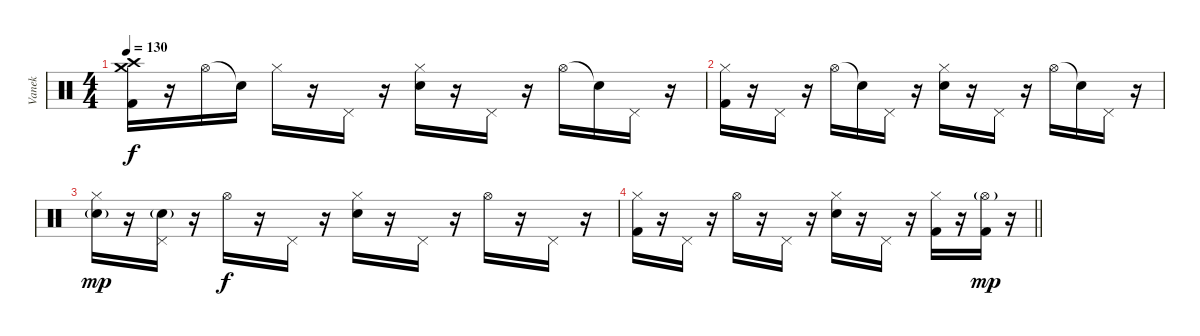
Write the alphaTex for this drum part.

\track ("Vanek" "Vanek") {instrument percussion}
\staff {score}
\articulation defaults
\ts (4 4)
\tempo 130
\clef neutral
\ks c
("Crash medium (hit)" "Crash high (hit)" "Kick (hit) 2").16{dy f} r.16 "Hi-Hat (open)".16 "Snare (hit)"{t}.16 "Hi-Hat (closed)".16 r.16 "Pedal Hi-Hat (hit)".16 r.16 ("Hi-Hat (closed)" "Electric Snare (hit)").16 r.16 "Pedal Hi-Hat (hit)".16 r.16 "Hi-Hat (open)".16 "Snare (hit)"{t}.16 "Pedal Hi-Hat (hit)".16 r.16 |
("Hi-Hat (closed)" "Kick (hit) 2").16 r.16 "Pedal Hi-Hat (hit)".16 r.16 "Hi-Hat (open)".16 "Snare (hit)"{t}.16 "Pedal Hi-Hat (hit)".16 r.16 ("Hi-Hat (closed)" "Electric Snare (hit)").16 r.16 "Pedal Hi-Hat (hit)".16 r.16 "Hi-Hat (open)".16 "Snare (hit)"{t}.16 "Pedal Hi-Hat (hit)".16 r.16 |
("Hi-Hat (closed)" "Electric Snare (hit)"{g}).16{dy mp} r.16 ("Pedal Hi-Hat (hit)" "Electric Snare (hit)"{g}).16 r.16 "Hi-Hat (open)".16{dy f} r.16 "Pedal Hi-Hat (hit)".16 r.16 ("Hi-Hat (closed)" "Electric Snare (hit)").16 r.16 "Pedal Hi-Hat (hit)".16 r.16 "Hi-Hat (open)".16 r.16 "Pedal Hi-Hat (hit)".16 r.16 |
\barLineRight lightlight
("Hi-Hat (closed)" "Kick (hit) 2").16 r.16 "Pedal Hi-Hat (hit)".16 r.16 "Hi-Hat (open)".16 r.16 "Pedal Hi-Hat (hit)".16 r.16 ("Hi-Hat (closed)" "Electric Snare (hit)").16 r.16 "Pedal Hi-Hat (hit)".16 r.16 ("Hi-Hat (closed)" "Kick (hit) 2").16 r.16 ("Hi-Hat (open)"{g} "Kick (hit) 2").16{dy mp} r.16
